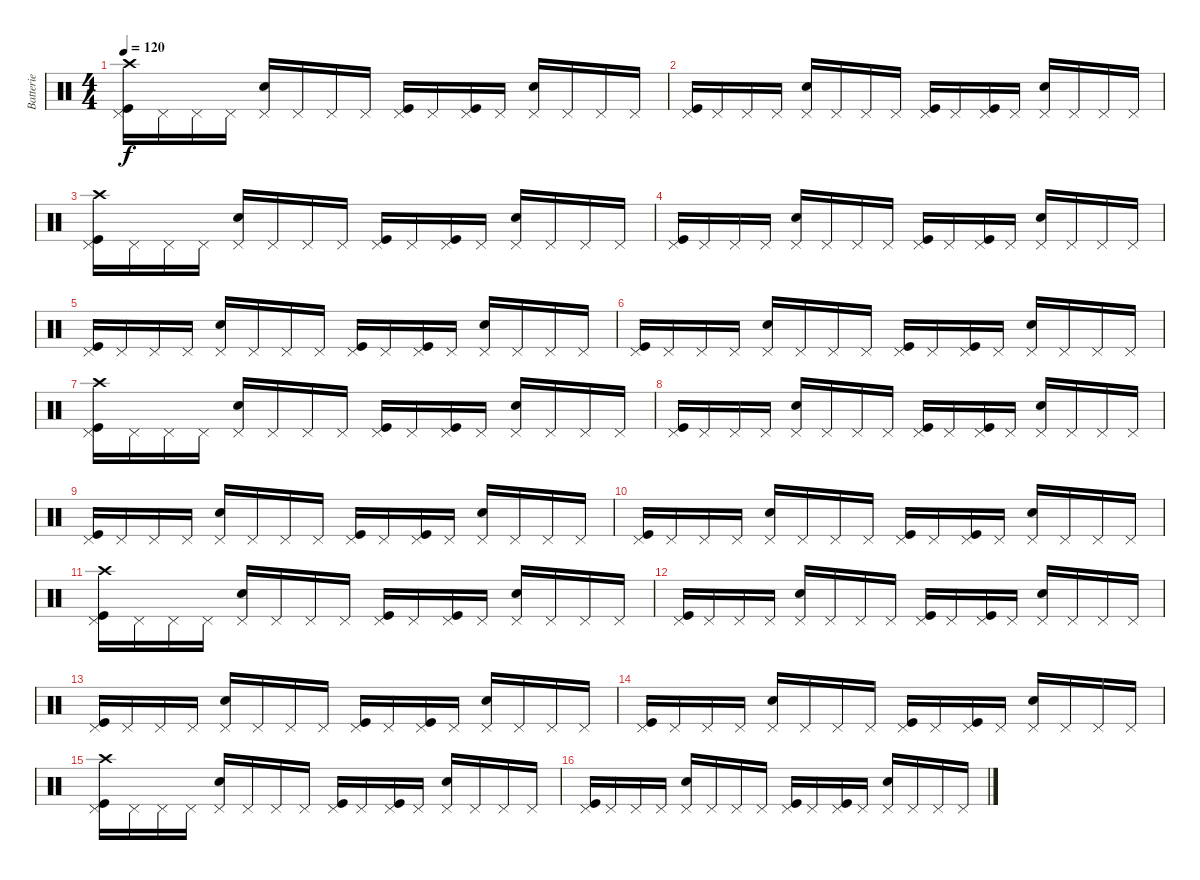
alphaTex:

\track ("Batterie" "Batterie") {instrument percussion}
\staff {score}
\articulation defaults
\ts (4 4)
\tempo 120
\clef neutral
\ks c
("Crash high (hit)" "Pedal Hi-Hat (hit)" "Kick (hit)").16{dy f} "Pedal Hi-Hat (hit)".16 "Pedal Hi-Hat (hit)".16 "Pedal Hi-Hat (hit)".16 ("Electric Snare (hit)" "Pedal Hi-Hat (hit)").16 "Pedal Hi-Hat (hit)".16 "Pedal Hi-Hat (hit)".16 "Pedal Hi-Hat (hit)".16 ("Pedal Hi-Hat (hit)" "Kick (hit)").16 "Pedal Hi-Hat (hit)".16 ("Pedal Hi-Hat (hit)" "Kick (hit)").16 "Pedal Hi-Hat (hit)".16 ("Electric Snare (hit)" "Pedal Hi-Hat (hit)").16 "Pedal Hi-Hat (hit)".16 "Pedal Hi-Hat (hit)".16 "Pedal Hi-Hat (hit)".16 |
("Pedal Hi-Hat (hit)" "Kick (hit)").16 "Pedal Hi-Hat (hit)".16 "Pedal Hi-Hat (hit)".16 "Pedal Hi-Hat (hit)".16 ("Electric Snare (hit)" "Pedal Hi-Hat (hit)").16 "Pedal Hi-Hat (hit)".16 "Pedal Hi-Hat (hit)".16 "Pedal Hi-Hat (hit)".16 ("Pedal Hi-Hat (hit)" "Kick (hit)").16 "Pedal Hi-Hat (hit)".16 ("Pedal Hi-Hat (hit)" "Kick (hit)").16 "Pedal Hi-Hat (hit)".16 ("Electric Snare (hit)" "Pedal Hi-Hat (hit)").16 "Pedal Hi-Hat (hit)".16 "Pedal Hi-Hat (hit)".16 "Pedal Hi-Hat (hit)".16 |
("Crash high (hit)" "Pedal Hi-Hat (hit)" "Kick (hit)").16 "Pedal Hi-Hat (hit)".16 "Pedal Hi-Hat (hit)".16 "Pedal Hi-Hat (hit)".16 ("Electric Snare (hit)" "Pedal Hi-Hat (hit)").16 "Pedal Hi-Hat (hit)".16 "Pedal Hi-Hat (hit)".16 "Pedal Hi-Hat (hit)".16 ("Pedal Hi-Hat (hit)" "Kick (hit)").16 "Pedal Hi-Hat (hit)".16 ("Pedal Hi-Hat (hit)" "Kick (hit)").16 "Pedal Hi-Hat (hit)".16 ("Electric Snare (hit)" "Pedal Hi-Hat (hit)").16 "Pedal Hi-Hat (hit)".16 "Pedal Hi-Hat (hit)".16 "Pedal Hi-Hat (hit)".16 |
("Pedal Hi-Hat (hit)" "Kick (hit)").16 "Pedal Hi-Hat (hit)".16 "Pedal Hi-Hat (hit)".16 "Pedal Hi-Hat (hit)".16 ("Electric Snare (hit)" "Pedal Hi-Hat (hit)").16 "Pedal Hi-Hat (hit)".16 "Pedal Hi-Hat (hit)".16 "Pedal Hi-Hat (hit)".16 ("Pedal Hi-Hat (hit)" "Kick (hit)").16 "Pedal Hi-Hat (hit)".16 ("Pedal Hi-Hat (hit)" "Kick (hit)").16 "Pedal Hi-Hat (hit)".16 ("Electric Snare (hit)" "Pedal Hi-Hat (hit)").16 "Pedal Hi-Hat (hit)".16 "Pedal Hi-Hat (hit)".16 "Pedal Hi-Hat (hit)".16 |
("Pedal Hi-Hat (hit)" "Kick (hit)").16 "Pedal Hi-Hat (hit)".16 "Pedal Hi-Hat (hit)".16 "Pedal Hi-Hat (hit)".16 ("Electric Snare (hit)" "Pedal Hi-Hat (hit)").16 "Pedal Hi-Hat (hit)".16 "Pedal Hi-Hat (hit)".16 "Pedal Hi-Hat (hit)".16 ("Pedal Hi-Hat (hit)" "Kick (hit)").16 "Pedal Hi-Hat (hit)".16 ("Pedal Hi-Hat (hit)" "Kick (hit)").16 "Pedal Hi-Hat (hit)".16 ("Electric Snare (hit)" "Pedal Hi-Hat (hit)").16 "Pedal Hi-Hat (hit)".16 "Pedal Hi-Hat (hit)".16 "Pedal Hi-Hat (hit)".16 |
("Pedal Hi-Hat (hit)" "Kick (hit)").16 "Pedal Hi-Hat (hit)".16 "Pedal Hi-Hat (hit)".16 "Pedal Hi-Hat (hit)".16 ("Electric Snare (hit)" "Pedal Hi-Hat (hit)").16 "Pedal Hi-Hat (hit)".16 "Pedal Hi-Hat (hit)".16 "Pedal Hi-Hat (hit)".16 ("Pedal Hi-Hat (hit)" "Kick (hit)").16 "Pedal Hi-Hat (hit)".16 ("Pedal Hi-Hat (hit)" "Kick (hit)").16 "Pedal Hi-Hat (hit)".16 ("Electric Snare (hit)" "Pedal Hi-Hat (hit)").16 "Pedal Hi-Hat (hit)".16 "Pedal Hi-Hat (hit)".16 "Pedal Hi-Hat (hit)".16 |
("Crash high (hit)" "Pedal Hi-Hat (hit)" "Kick (hit)").16 "Pedal Hi-Hat (hit)".16 "Pedal Hi-Hat (hit)".16 "Pedal Hi-Hat (hit)".16 ("Electric Snare (hit)" "Pedal Hi-Hat (hit)").16 "Pedal Hi-Hat (hit)".16 "Pedal Hi-Hat (hit)".16 "Pedal Hi-Hat (hit)".16 ("Pedal Hi-Hat (hit)" "Kick (hit)").16 "Pedal Hi-Hat (hit)".16 ("Pedal Hi-Hat (hit)" "Kick (hit)").16 "Pedal Hi-Hat (hit)".16 ("Electric Snare (hit)" "Pedal Hi-Hat (hit)").16 "Pedal Hi-Hat (hit)".16 "Pedal Hi-Hat (hit)".16 "Pedal Hi-Hat (hit)".16 |
("Pedal Hi-Hat (hit)" "Kick (hit)").16 "Pedal Hi-Hat (hit)".16 "Pedal Hi-Hat (hit)".16 "Pedal Hi-Hat (hit)".16 ("Electric Snare (hit)" "Pedal Hi-Hat (hit)").16 "Pedal Hi-Hat (hit)".16 "Pedal Hi-Hat (hit)".16 "Pedal Hi-Hat (hit)".16 ("Pedal Hi-Hat (hit)" "Kick (hit)").16 "Pedal Hi-Hat (hit)".16 ("Pedal Hi-Hat (hit)" "Kick (hit)").16 "Pedal Hi-Hat (hit)".16 ("Electric Snare (hit)" "Pedal Hi-Hat (hit)").16 "Pedal Hi-Hat (hit)".16 "Pedal Hi-Hat (hit)".16 "Pedal Hi-Hat (hit)".16 |
("Pedal Hi-Hat (hit)" "Kick (hit)").16 "Pedal Hi-Hat (hit)".16 "Pedal Hi-Hat (hit)".16 "Pedal Hi-Hat (hit)".16 ("Electric Snare (hit)" "Pedal Hi-Hat (hit)").16 "Pedal Hi-Hat (hit)".16 "Pedal Hi-Hat (hit)".16 "Pedal Hi-Hat (hit)".16 ("Pedal Hi-Hat (hit)" "Kick (hit)").16 "Pedal Hi-Hat (hit)".16 ("Pedal Hi-Hat (hit)" "Kick (hit)").16 "Pedal Hi-Hat (hit)".16 ("Electric Snare (hit)" "Pedal Hi-Hat (hit)").16 "Pedal Hi-Hat (hit)".16 "Pedal Hi-Hat (hit)".16 "Pedal Hi-Hat (hit)".16 |
("Pedal Hi-Hat (hit)" "Kick (hit)").16 "Pedal Hi-Hat (hit)".16 "Pedal Hi-Hat (hit)".16 "Pedal Hi-Hat (hit)".16 ("Electric Snare (hit)" "Pedal Hi-Hat (hit)").16 "Pedal Hi-Hat (hit)".16 "Pedal Hi-Hat (hit)".16 "Pedal Hi-Hat (hit)".16 ("Pedal Hi-Hat (hit)" "Kick (hit)").16 "Pedal Hi-Hat (hit)".16 ("Pedal Hi-Hat (hit)" "Kick (hit)").16 "Pedal Hi-Hat (hit)".16 ("Electric Snare (hit)" "Pedal Hi-Hat (hit)").16 "Pedal Hi-Hat (hit)".16 "Pedal Hi-Hat (hit)".16 "Pedal Hi-Hat (hit)".16 |
("Crash high (hit)" "Pedal Hi-Hat (hit)" "Kick (hit)").16 "Pedal Hi-Hat (hit)".16 "Pedal Hi-Hat (hit)".16 "Pedal Hi-Hat (hit)".16 ("Electric Snare (hit)" "Pedal Hi-Hat (hit)").16 "Pedal Hi-Hat (hit)".16 "Pedal Hi-Hat (hit)".16 "Pedal Hi-Hat (hit)".16 ("Pedal Hi-Hat (hit)" "Kick (hit)").16 "Pedal Hi-Hat (hit)".16 ("Pedal Hi-Hat (hit)" "Kick (hit)").16 "Pedal Hi-Hat (hit)".16 ("Electric Snare (hit)" "Pedal Hi-Hat (hit)").16 "Pedal Hi-Hat (hit)".16 "Pedal Hi-Hat (hit)".16 "Pedal Hi-Hat (hit)".16 |
("Pedal Hi-Hat (hit)" "Kick (hit)").16 "Pedal Hi-Hat (hit)".16 "Pedal Hi-Hat (hit)".16 "Pedal Hi-Hat (hit)".16 ("Electric Snare (hit)" "Pedal Hi-Hat (hit)").16 "Pedal Hi-Hat (hit)".16 "Pedal Hi-Hat (hit)".16 "Pedal Hi-Hat (hit)".16 ("Pedal Hi-Hat (hit)" "Kick (hit)").16 "Pedal Hi-Hat (hit)".16 ("Pedal Hi-Hat (hit)" "Kick (hit)").16 "Pedal Hi-Hat (hit)".16 ("Electric Snare (hit)" "Pedal Hi-Hat (hit)").16 "Pedal Hi-Hat (hit)".16 "Pedal Hi-Hat (hit)".16 "Pedal Hi-Hat (hit)".16 |
("Pedal Hi-Hat (hit)" "Kick (hit)").16 "Pedal Hi-Hat (hit)".16 "Pedal Hi-Hat (hit)".16 "Pedal Hi-Hat (hit)".16 ("Electric Snare (hit)" "Pedal Hi-Hat (hit)").16 "Pedal Hi-Hat (hit)".16 "Pedal Hi-Hat (hit)".16 "Pedal Hi-Hat (hit)".16 ("Pedal Hi-Hat (hit)" "Kick (hit)").16 "Pedal Hi-Hat (hit)".16 ("Pedal Hi-Hat (hit)" "Kick (hit)").16 "Pedal Hi-Hat (hit)".16 ("Electric Snare (hit)" "Pedal Hi-Hat (hit)").16 "Pedal Hi-Hat (hit)".16 "Pedal Hi-Hat (hit)".16 "Pedal Hi-Hat (hit)".16 |
("Pedal Hi-Hat (hit)" "Kick (hit)").16 "Pedal Hi-Hat (hit)".16 "Pedal Hi-Hat (hit)".16 "Pedal Hi-Hat (hit)".16 ("Electric Snare (hit)" "Pedal Hi-Hat (hit)").16 "Pedal Hi-Hat (hit)".16 "Pedal Hi-Hat (hit)".16 "Pedal Hi-Hat (hit)".16 ("Pedal Hi-Hat (hit)" "Kick (hit)").16 "Pedal Hi-Hat (hit)".16 ("Pedal Hi-Hat (hit)" "Kick (hit)").16 "Pedal Hi-Hat (hit)".16 ("Electric Snare (hit)" "Pedal Hi-Hat (hit)").16 "Pedal Hi-Hat (hit)".16 "Pedal Hi-Hat (hit)".16 "Pedal Hi-Hat (hit)".16 |
("Crash high (hit)" "Pedal Hi-Hat (hit)" "Kick (hit)").16 "Pedal Hi-Hat (hit)".16 "Pedal Hi-Hat (hit)".16 "Pedal Hi-Hat (hit)".16 ("Electric Snare (hit)" "Pedal Hi-Hat (hit)").16 "Pedal Hi-Hat (hit)".16 "Pedal Hi-Hat (hit)".16 "Pedal Hi-Hat (hit)".16 ("Pedal Hi-Hat (hit)" "Kick (hit)").16 "Pedal Hi-Hat (hit)".16 ("Pedal Hi-Hat (hit)" "Kick (hit)").16 "Pedal Hi-Hat (hit)".16 ("Electric Snare (hit)" "Pedal Hi-Hat (hit)").16 "Pedal Hi-Hat (hit)".16 "Pedal Hi-Hat (hit)".16 "Pedal Hi-Hat (hit)".16 |
("Pedal Hi-Hat (hit)" "Kick (hit)").16 "Pedal Hi-Hat (hit)".16 "Pedal Hi-Hat (hit)".16 "Pedal Hi-Hat (hit)".16 ("Electric Snare (hit)" "Pedal Hi-Hat (hit)").16 "Pedal Hi-Hat (hit)".16 "Pedal Hi-Hat (hit)".16 "Pedal Hi-Hat (hit)".16 ("Pedal Hi-Hat (hit)" "Kick (hit)").16 "Pedal Hi-Hat (hit)".16 ("Pedal Hi-Hat (hit)" "Kick (hit)").16 "Pedal Hi-Hat (hit)".16 ("Electric Snare (hit)" "Pedal Hi-Hat (hit)").16 "Pedal Hi-Hat (hit)".16 "Pedal Hi-Hat (hit)".16 "Pedal Hi-Hat (hit)".16
